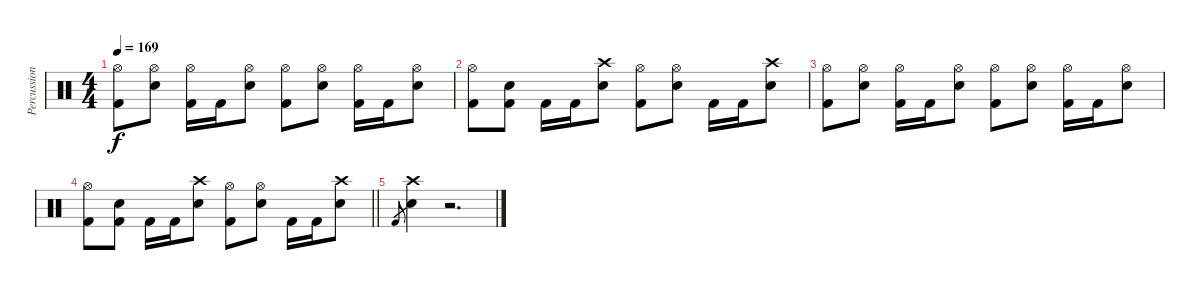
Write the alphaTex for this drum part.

\track ("Percussion" "Percussion") {instrument percussion}
\staff {score}
\articulation defaults
\ts (4 4)
\tempo 169
\clef neutral
\ks c
("Hi-Hat (open)" "Kick (hit) 2").8{dy f} ("Hi-Hat (open)" "Electric Snare (hit)").8 ("Hi-Hat (open)" "Kick (hit) 2").16 "Kick (hit) 2".16 ("Hi-Hat (open)" "Electric Snare (hit)").8 ("Hi-Hat (open)" "Kick (hit) 2").8 ("Hi-Hat (open)" "Electric Snare (hit)").8 ("Hi-Hat (open)" "Kick (hit) 2").16 "Kick (hit) 2".16 ("Hi-Hat (open)" "Electric Snare (hit)").8 |
("Hi-Hat (open)" "Kick (hit) 2").8 ("Kick (hit) 2" "Electric Snare (hit)").8 "Kick (hit) 2".16 "Kick (hit) 2".16 ("Crash high (hit)" "Electric Snare (hit)").8 ("Hi-Hat (open)" "Kick (hit) 2").8 ("Hi-Hat (open)" "Electric Snare (hit)").8 "Kick (hit) 2".16 "Kick (hit) 2".16 ("Crash high (hit)" "Electric Snare (hit)").8 |
("Hi-Hat (open)" "Kick (hit) 2").8 ("Hi-Hat (open)" "Electric Snare (hit)").8 ("Hi-Hat (open)" "Kick (hit) 2").16 "Kick (hit) 2".16 ("Hi-Hat (open)" "Electric Snare (hit)").8 ("Hi-Hat (open)" "Kick (hit) 2").8 ("Hi-Hat (open)" "Electric Snare (hit)").8 ("Hi-Hat (open)" "Kick (hit) 2").16 "Kick (hit) 2".16 ("Hi-Hat (open)" "Electric Snare (hit)").8 |
\barLineRight lightlight
("Hi-Hat (open)" "Kick (hit) 2").8 ("Kick (hit) 2" "Electric Snare (hit)").8 "Kick (hit) 2".16 "Kick (hit) 2".16 ("Crash high (hit)" "Electric Snare (hit)").8 ("Hi-Hat (open)" "Kick (hit) 2").8 ("Hi-Hat (open)" "Electric Snare (hit)").8 "Kick (hit) 2".16 "Kick (hit) 2".16 ("Crash high (hit)" "Electric Snare (hit)").8 |
"Kick (hit) 2".8{gr} ("Crash high (hit)" "Electric Snare (hit)").4 r.2{d}
